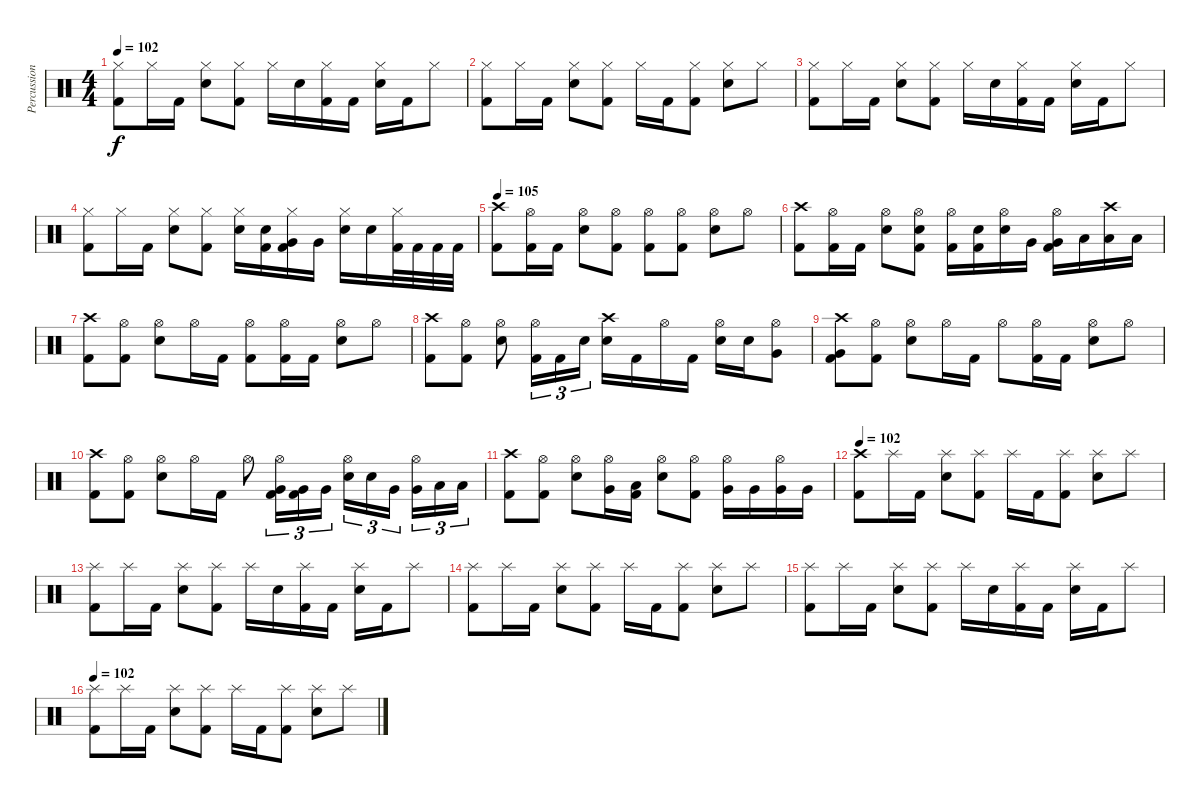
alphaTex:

\track ("Percussions" "Percussion") {instrument percussion}
\staff {score}
\articulation defaults
\ts (4 4)
\tempo 102
\clef neutral
\ks c
("Hi-Hat (closed)" "Kick (hit) 2").8{dy f} "Hi-Hat (closed)".16 "Kick (hit) 2".16 ("Hi-Hat (closed)" "Electric Snare (hit)").8 ("Hi-Hat (closed)" "Kick (hit) 2").8 "Hi-Hat (closed)".16 "Electric Snare (hit)".16 ("Hi-Hat (closed)" "Kick (hit) 2").16 "Kick (hit) 2".16 ("Hi-Hat (closed)" "Electric Snare (hit)").16 "Kick (hit) 2".16 "Hi-Hat (closed)".8 |
("Hi-Hat (closed)" "Kick (hit) 2").8 "Hi-Hat (closed)".16 "Kick (hit) 2".16 ("Hi-Hat (closed)" "Electric Snare (hit)").8 ("Hi-Hat (closed)" "Kick (hit) 2").8 "Hi-Hat (closed)".16 "Kick (hit) 2".16 ("Hi-Hat (closed)" "Kick (hit) 2").8 ("Hi-Hat (closed)" "Electric Snare (hit)").8 "Hi-Hat (closed)".8 |
("Hi-Hat (closed)" "Kick (hit) 2").8 "Hi-Hat (closed)".16 "Kick (hit) 2".16 ("Hi-Hat (closed)" "Electric Snare (hit)").8 ("Hi-Hat (closed)" "Kick (hit) 2").8 "Hi-Hat (closed)".16 "Electric Snare (hit)".16 ("Hi-Hat (closed)" "Kick (hit) 2").16 "Kick (hit) 2".16 ("Hi-Hat (closed)" "Electric Snare (hit)").16 "Kick (hit) 2".16 "Hi-Hat (closed)".8 |
("Hi-Hat (closed)" "Kick (hit) 2").8 "Hi-Hat (closed)".16 "Kick (hit) 2".16 ("Hi-Hat (closed)" "Electric Snare (hit)").8 ("Hi-Hat (closed)" "Kick (hit) 2").8 ("Hi-Hat (closed)" "Electric Snare (hit)").16 ("Electric Snare (hit)" "Kick (hit) 2").16 ("Hi-Hat (closed)" "Very Low Tom (hit)" "Kick (hit) 2").16 "Very Low Tom (hit)".16 ("Hi-Hat (closed)" "Electric Snare (hit)").16 "Electric Snare (hit)".16 ("Hi-Hat (closed)" "Kick (hit) 2").32 "Kick (hit) 2".32 "Kick (hit) 2".32 "Kick (hit) 2".32 |
\tempo 105
("Crash high (hit)" "Kick (hit) 2").8 ("Hi-Hat (open)" "Kick (hit) 2").16 "Kick (hit) 2".16 ("Hi-Hat (open)" "Electric Snare (hit)").8 ("Hi-Hat (open)" "Kick (hit) 2").8 ("Hi-Hat (open)" "Kick (hit) 2").8 ("Hi-Hat (open)" "Kick (hit) 2").8 ("Hi-Hat (open)" "Electric Snare (hit)").8 "Hi-Hat (open)".8 |
("Crash high (hit)" "Kick (hit) 2").8 ("Hi-Hat (open)" "Kick (hit) 2").16 "Kick (hit) 2".16 ("Hi-Hat (open)" "Electric Snare (hit)").8 ("Hi-Hat (open)" "Electric Snare (hit)" "Kick (hit) 2").8 ("Hi-Hat (open)" "Kick (hit) 2").16 ("Electric Snare (hit)" "Kick (hit) 2").16 ("Hi-Hat (open)" "Electric Snare (hit)").16 "Very Low Tom (hit)".16 ("Hi-Hat (open)" "Very Low Tom (hit)" "Kick (hit) 2").16 "Low Floor Tom (hit)".16 ("Crash high (hit)" "Low Floor Tom (hit)").16 "Low Floor Tom (hit)".16 |
("Crash high (hit)" "Kick (hit) 2").8 ("Hi-Hat (open)" "Kick (hit) 2").8 ("Hi-Hat (open)" "Electric Snare (hit)").8 "Hi-Hat (open)".16 "Kick (hit) 2".16 ("Hi-Hat (open)" "Kick (hit) 2").8 ("Hi-Hat (open)" "Kick (hit) 2").16 "Kick (hit) 2".16 ("Hi-Hat (open)" "Electric Snare (hit)").8 "Hi-Hat (open)".8 |
("Crash high (hit)" "Kick (hit) 2").8 ("Hi-Hat (open)" "Kick (hit) 2").8 ("Hi-Hat (open)" "Electric Snare (hit)").8 ("Hi-Hat (open)" "Kick (hit) 2").16{tu (3 2)} "Kick (hit) 2".16{tu (3 2)} "Electric Snare (hit)".16{tu (3 2)} ("Crash high (hit)" "Electric Snare (hit)").16 "Kick (hit) 2".16 "Hi-Hat (open)".16 "Kick (hit) 2".16 ("Hi-Hat (open)" "Electric Snare (hit)").16 "Electric Snare (hit)".16 ("Hi-Hat (open)" "Very Low Tom (hit)").8 |
("Crash high (hit)" "Very Low Tom (hit)" "Kick (hit) 2").8 ("Hi-Hat (open)" "Kick (hit) 2").8 ("Hi-Hat (open)" "Electric Snare (hit)").8 "Hi-Hat (open)".16 "Kick (hit) 2".16 "Hi-Hat (open)".8 ("Hi-Hat (open)" "Kick (hit) 2").16 "Kick (hit) 2".16 ("Hi-Hat (open)" "Electric Snare (hit)").8 "Hi-Hat (open)".8 |
("Crash high (hit)" "Kick (hit) 2").8 ("Hi-Hat (open)" "Kick (hit) 2").8 ("Hi-Hat (open)" "Electric Snare (hit)").8 "Hi-Hat (open)".16 "Kick (hit) 2".16 "Hi-Hat (open)".8 ("Hi-Hat (open)" "Very Low Tom (hit)" "Kick (hit) 2").16{tu (3 2)} ("Very Low Tom (hit)" "Kick (hit) 2").16{tu (3 2)} "Very Low Tom (hit)".16{tu (3 2)} ("Hi-Hat (open)" "Electric Snare (hit)").16{tu (3 2)} "Electric Snare (hit)".16{tu (3 2)} "Very Low Tom (hit)".16{tu (3 2)} ("Hi-Hat (open)" "Very Low Tom (hit)").16{tu (3 2)} "Low Floor Tom (hit)".16{tu (3 2)} "Low Floor Tom (hit)".16{tu (3 2)} |
("Crash high (hit)" "Kick (hit) 2").8 ("Hi-Hat (open)" "Kick (hit) 2").8 ("Hi-Hat (open)" "Electric Snare (hit)").8 ("Hi-Hat (open)" "Very Low Tom (hit)").16 ("Low Floor Tom (hit)" "Kick (hit) 2").16 ("Hi-Hat (open)" "Electric Snare (hit)").8 ("Hi-Hat (open)" "Kick (hit) 2").8 ("Hi-Hat (open)" "Very Low Tom (hit)").16 "Very Low Tom (hit)".16 ("Hi-Hat (open)" "Very Low Tom (hit)").16 "Very Low Tom (hit)".16 |
\tempo 102
("Crash high (hit)" "Kick (hit) 2").8 "Splash (hit)".16 "Kick (hit) 2".16 ("Splash (hit)" "Electric Snare (hit)").8 ("Splash (hit)" "Kick (hit) 2").8 "Splash (hit)".16 "Kick (hit) 2".16 ("Splash (hit)" "Kick (hit) 2").8 ("Splash (hit)" "Electric Snare (hit)").8 "Splash (hit)".8 |
("Splash (hit)" "Kick (hit) 2").8 "Splash (hit)".16 "Kick (hit) 2".16 ("Splash (hit)" "Electric Snare (hit)").8 ("Splash (hit)" "Kick (hit) 2").8 "Splash (hit)".16 "Electric Snare (hit)".16 ("Splash (hit)" "Kick (hit) 2").16 "Kick (hit) 2".16 ("Splash (hit)" "Electric Snare (hit)").16 "Kick (hit) 2".16 "Splash (hit)".8 |
("Splash (hit)" "Kick (hit) 2").8 "Splash (hit)".16 "Kick (hit) 2".16 ("Splash (hit)" "Electric Snare (hit)").8 ("Splash (hit)" "Kick (hit) 2").8 "Splash (hit)".16 "Kick (hit) 2".16 ("Splash (hit)" "Kick (hit) 2").8 ("Splash (hit)" "Electric Snare (hit)").8 "Splash (hit)".8 |
("Splash (hit)" "Kick (hit) 2").8 "Splash (hit)".16 "Kick (hit) 2".16 ("Splash (hit)" "Electric Snare (hit)").8 ("Splash (hit)" "Kick (hit) 2").8 "Splash (hit)".16 "Electric Snare (hit)".16 ("Splash (hit)" "Kick (hit) 2").16 "Kick (hit) 2".16 ("Splash (hit)" "Electric Snare (hit)").16 "Kick (hit) 2".16 "Splash (hit)".8 |
\tempo 102
("Splash (hit)" "Kick (hit) 2").8 "Splash (hit)".16 "Kick (hit) 2".16 ("Splash (hit)" "Electric Snare (hit)").8 ("Splash (hit)" "Kick (hit) 2").8 "Splash (hit)".16 "Kick (hit) 2".16 ("Splash (hit)" "Kick (hit) 2").8 ("Splash (hit)" "Electric Snare (hit)").8 "Splash (hit)".8
